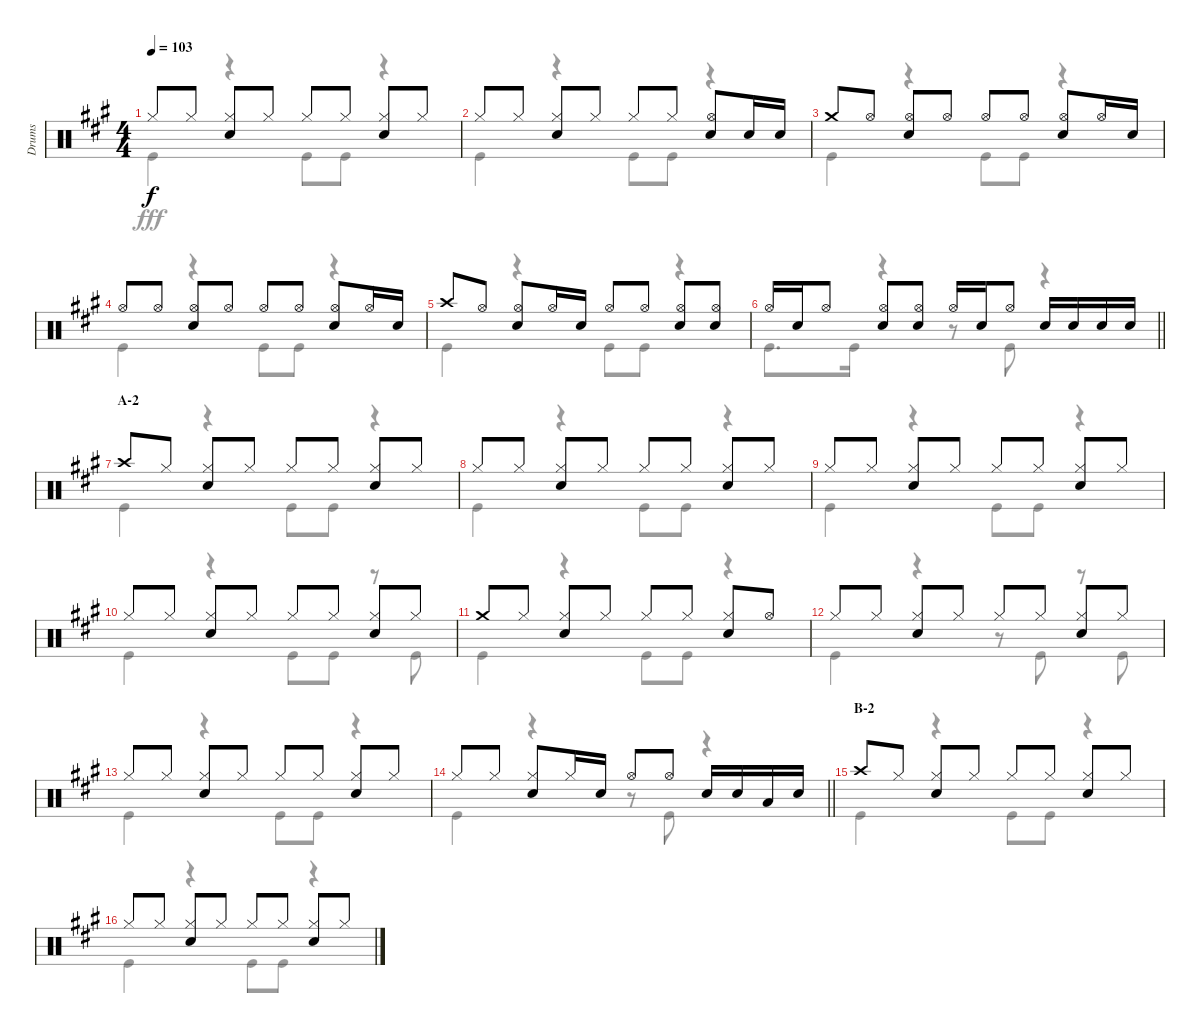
\track ("Drums" "Drums") {instrument percussion}
\staff {score}
\articulation defaults
\voice
\ts (4 4)
\tempo 103
\clef neutral
\ks a "Hi-Hat (closed)".8{dy f} "Hi-Hat (closed)".8
("Hi-Hat (closed)" "Snare (hit) 2").8 "Hi-Hat (closed)".8 "Hi-Hat (closed)".8 "Hi-Hat (closed)".8 ("Hi-Hat (closed)" "Snare (hit) 2").8 "Hi-Hat (closed)".8 |
"Hi-Hat (closed)".8 "Hi-Hat (closed)".8 ("Hi-Hat (closed)" "Snare (hit) 2").8 "Hi-Hat (closed)".8 "Hi-Hat (closed)".8 "Hi-Hat (closed)".8 ("Hi-Hat (open)" "Snare (hit) 2").8 "Snare (hit) 2".16 "Snare (hit) 2".16 |
"Crash medium (hit)".8 "Hi-Hat (open)".8 ("Hi-Hat (open)" "Snare (hit) 2").8 "Hi-Hat (open)".8 "Hi-Hat (open)".8 "Hi-Hat (open)".8 ("Hi-Hat (open)" "Snare (hit) 2").8 "Hi-Hat (open)".16 "Snare (hit) 2".16 |
"Hi-Hat (open)".8 "Hi-Hat (open)".8 ("Hi-Hat (open)" "Snare (hit) 2").8 "Hi-Hat (open)".8 "Hi-Hat (open)".8 "Hi-Hat (open)".8 ("Hi-Hat (open)" "Snare (hit) 2").8 "Hi-Hat (open)".16 "Snare (hit) 2".16 |
"Crash high (hit)".8 "Hi-Hat (open)".8 ("Hi-Hat (open)" "Snare (hit) 2").8 "Hi-Hat (open)".16 "Snare (hit) 2".16 "Hi-Hat (open)".8 "Hi-Hat (open)".8 ("Hi-Hat (open)" "Snare (hit) 2").8 ("Hi-Hat (open)" "Snare (hit) 2").8 |
\barLineRight lightlight "Hi-Hat (open)".16 "Snare (hit) 2".16 "Hi-Hat (open)".8
("Hi-Hat (open)" "Snare (hit) 2").8 ("Hi-Hat (open)" "Snare (hit) 2").8 "Hi-Hat (open)".16 "Snare (hit) 2".16 "Hi-Hat (open)".8 "Snare (hit) 2".16 "Snare (hit) 2".16 "Snare (hit) 2".16 "Snare (hit) 2".16 |
\section ("" "A-2")
"Crash high (hit)".8 "Hi-Hat (closed)".8 ("Hi-Hat (closed)" "Snare (hit) 2").8 "Hi-Hat (closed)".8 "Hi-Hat (closed)".8 "Hi-Hat (closed)".8 ("Hi-Hat (closed)" "Snare (hit) 2").8 "Hi-Hat (closed)".8 |
"Hi-Hat (closed)".8 "Hi-Hat (closed)".8 ("Hi-Hat (closed)" "Snare (hit) 2").8 "Hi-Hat (closed)".8 "Hi-Hat (closed)".8 "Hi-Hat (closed)".8 ("Hi-Hat (closed)" "Snare (hit) 2").8 "Hi-Hat (closed)".8 |
"Hi-Hat (closed)".8 "Hi-Hat (closed)".8 ("Hi-Hat (closed)" "Snare (hit) 2").8 "Hi-Hat (closed)".8 "Hi-Hat (closed)".8 "Hi-Hat (closed)".8 ("Hi-Hat (closed)" "Snare (hit) 2").8 "Hi-Hat (closed)".8 |
"Hi-Hat (closed)".8 "Hi-Hat (closed)".8 ("Hi-Hat (closed)" "Snare (hit) 2").8 "Hi-Hat (closed)".8 "Hi-Hat (closed)".8 "Hi-Hat (closed)".8 ("Hi-Hat (closed)" "Snare (hit) 2").8 "Hi-Hat (closed)".8 |
"Crash medium (hit)".8 "Hi-Hat (closed)".8 ("Hi-Hat (closed)" "Snare (hit) 2").8 "Hi-Hat (closed)".8 "Hi-Hat (closed)".8 "Hi-Hat (closed)".8 ("Hi-Hat (closed)" "Snare (hit) 2").8 "Hi-Hat (open)".8 |
"Hi-Hat (closed)".8 "Hi-Hat (closed)".8 ("Hi-Hat (closed)" "Snare (hit) 2").8 "Hi-Hat (closed)".8 "Hi-Hat (closed)".8 "Hi-Hat (closed)".8 ("Hi-Hat (closed)" "Snare (hit) 2").8 "Hi-Hat (closed)".8 |
"Hi-Hat (closed)".8 "Hi-Hat (closed)".8 ("Hi-Hat (closed)" "Snare (hit) 2").8 "Hi-Hat (closed)".8 "Hi-Hat (closed)".8 "Hi-Hat (closed)".8 ("Hi-Hat (closed)" "Snare (hit) 2").8 "Hi-Hat (closed)".8 |
\barLineRight lightlight "Hi-Hat (closed)".8 "Hi-Hat (closed)".8
("Hi-Hat (closed)" "Snare (hit) 2").8 "Hi-Hat (closed)".16 "Snare (hit) 2".16 "Hi-Hat (open)".8 "Hi-Hat (open)".8 "Snare (hit) 2".16 "Snare (hit) 2".16 "Low Tom (hit)".16 "Snare (hit) 2".16 |
\section ("" "B-2")
"Crash high (hit)".8 "Hi-Hat (closed)".8 ("Hi-Hat (closed)" "Snare (hit) 2").8 "Hi-Hat (closed)".8 "Hi-Hat (closed)".8 "Hi-Hat (closed)".8 ("Hi-Hat (closed)" "Snare (hit) 2").8 "Hi-Hat (closed)".8 |
"Hi-Hat (closed)".8 "Hi-Hat (closed)".8 ("Hi-Hat (closed)" "Snare (hit) 2").8 "Hi-Hat (closed)".8 "Hi-Hat (closed)".8 "Hi-Hat (closed)".8 ("Hi-Hat (closed)" "Snare (hit) 2").8 "Hi-Hat (closed)".8
\voice
\clef neutral
\ottava regular
\simile none
\ks a "Kick (hit)".4{dy fff}
r.4 "Kick (hit)".8 "Kick (hit)".8 r.4 |
"Kick (hit)".4 r.4 "Kick (hit)".8 "Kick (hit)".8 r.4 |
"Kick (hit)".4 r.4 "Kick (hit)".8 "Kick (hit)".8 r.4 |
"Kick (hit)".4 r.4 "Kick (hit)".8 "Kick (hit)".8 r.4 |
"Kick (hit)".4 r.4 "Kick (hit)".8 "Kick (hit)".8 r.4 |
\barLineRight lightlight "Kick (hit)".8{d} "Kick (hit)".16
r.4 r.8 "Kick (hit)".8 r.4 |
"Kick (hit)".4 r.4 "Kick (hit)".8 "Kick (hit)".8 r.4 |
"Kick (hit)".4 r.4 "Kick (hit)".8 "Kick (hit)".8 r.4 |
"Kick (hit)".4 r.4 "Kick (hit)".8 "Kick (hit)".8 r.4 |
"Kick (hit)".4 r.4 "Kick (hit)".8 "Kick (hit)".8 r.8 "Kick (hit)".8 |
"Kick (hit)".4 r.4 "Kick (hit)".8 "Kick (hit)".8 r.4 |
"Kick (hit)".4 r.4 r.8 "Kick (hit)".8 r.8 "Kick (hit)".8 |
"Kick (hit)".4 r.4 "Kick (hit)".8 "Kick (hit)".8 r.4 |
\barLineRight lightlight "Kick (hit)".4
r.4 r.8 "Kick (hit)".8 r.4 |
"Kick (hit)".4 r.4 "Kick (hit)".8 "Kick (hit)".8 r.4 |
"Kick (hit)".4 r.4 "Kick (hit)".8 "Kick (hit)".8 r.4
